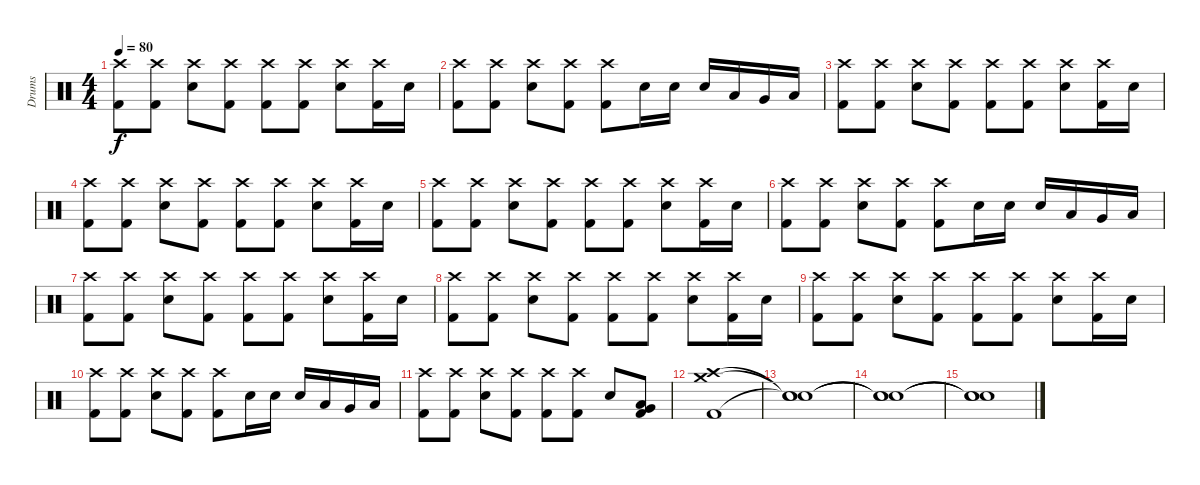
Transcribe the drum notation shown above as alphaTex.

\track ("Drums" "Drums") {instrument percussion}
\staff {score}
\articulation defaults
\ts (4 4)
\tempo 80
\clef neutral
\ks c
("Crash high (hit)" "Kick (hit) 2").8{dy f} ("Crash high (hit)" "Kick (hit) 2").8 ("Crash high (hit)" "Snare (hit) 2").8 ("Crash high (hit)" "Kick (hit) 2").8 ("Crash high (hit)" "Kick (hit) 2").8 ("Crash high (hit)" "Kick (hit) 2").8 ("Crash high (hit)" "Snare (hit) 2").8 ("Crash high (hit)" "Kick (hit) 2").16 "Snare (hit) 2".16 |
("Crash high (hit)" "Kick (hit) 2").8 ("Crash high (hit)" "Kick (hit) 2").8 ("Crash high (hit)" "Snare (hit) 2").8 ("Crash high (hit)" "Kick (hit) 2").8 ("Crash high (hit)" "Kick (hit) 2").8 "Snare (hit) 2".16 "Snare (hit) 2".16 "Snare (hit) 2".16 "Low Tom (hit)".16 "Very Low Tom (hit)".16 "Low Floor Tom (hit)".16 |
("Crash high (hit)" "Kick (hit) 2").8 ("Crash high (hit)" "Kick (hit) 2").8 ("Crash high (hit)" "Snare (hit) 2").8 ("Crash high (hit)" "Kick (hit) 2").8 ("Crash high (hit)" "Kick (hit) 2").8 ("Crash high (hit)" "Kick (hit) 2").8 ("Crash high (hit)" "Snare (hit) 2").8 ("Crash high (hit)" "Kick (hit) 2").16 "Snare (hit) 2".16 |
("Crash high (hit)" "Kick (hit) 2").8 ("Crash high (hit)" "Kick (hit) 2").8 ("Crash high (hit)" "Snare (hit) 2").8 ("Crash high (hit)" "Kick (hit) 2").8 ("Crash high (hit)" "Kick (hit) 2").8 ("Crash high (hit)" "Kick (hit) 2").8 ("Crash high (hit)" "Snare (hit) 2").8 ("Crash high (hit)" "Kick (hit) 2").16 "Snare (hit) 2".16 |
("Crash high (hit)" "Kick (hit) 2").8 ("Crash high (hit)" "Kick (hit) 2").8 ("Crash high (hit)" "Snare (hit) 2").8 ("Crash high (hit)" "Kick (hit) 2").8 ("Crash high (hit)" "Kick (hit) 2").8 ("Crash high (hit)" "Kick (hit) 2").8 ("Crash high (hit)" "Snare (hit) 2").8 ("Crash high (hit)" "Kick (hit) 2").16 "Snare (hit) 2".16 |
("Crash high (hit)" "Kick (hit) 2").8 ("Crash high (hit)" "Kick (hit) 2").8 ("Crash high (hit)" "Snare (hit) 2").8 ("Crash high (hit)" "Kick (hit) 2").8 ("Crash high (hit)" "Kick (hit) 2").8 "Snare (hit) 2".16 "Snare (hit) 2".16 "Snare (hit) 2".16 "Low Tom (hit)".16 "Very Low Tom (hit)".16 "Low Floor Tom (hit)".16 |
("Crash high (hit)" "Kick (hit) 2").8 ("Crash high (hit)" "Kick (hit) 2").8 ("Crash high (hit)" "Snare (hit) 2").8 ("Crash high (hit)" "Kick (hit) 2").8 ("Crash high (hit)" "Kick (hit) 2").8 ("Crash high (hit)" "Kick (hit) 2").8 ("Crash high (hit)" "Snare (hit) 2").8 ("Crash high (hit)" "Kick (hit) 2").16 "Snare (hit) 2".16 |
("Crash high (hit)" "Kick (hit) 2").8 ("Crash high (hit)" "Kick (hit) 2").8 ("Crash high (hit)" "Snare (hit) 2").8 ("Crash high (hit)" "Kick (hit) 2").8 ("Crash high (hit)" "Kick (hit) 2").8 ("Crash high (hit)" "Kick (hit) 2").8 ("Crash high (hit)" "Snare (hit) 2").8 ("Crash high (hit)" "Kick (hit) 2").16 "Snare (hit) 2".16 |
("Crash high (hit)" "Kick (hit) 2").8 ("Crash high (hit)" "Kick (hit) 2").8 ("Crash high (hit)" "Snare (hit) 2").8 ("Crash high (hit)" "Kick (hit) 2").8 ("Crash high (hit)" "Kick (hit) 2").8 ("Crash high (hit)" "Kick (hit) 2").8 ("Crash high (hit)" "Snare (hit) 2").8 ("Crash high (hit)" "Kick (hit) 2").16 "Snare (hit) 2".16 |
("Crash high (hit)" "Kick (hit) 2").8 ("Crash high (hit)" "Kick (hit) 2").8 ("Crash high (hit)" "Snare (hit) 2").8 ("Crash high (hit)" "Kick (hit) 2").8 ("Crash high (hit)" "Kick (hit) 2").8 "Snare (hit) 2".16 "Snare (hit) 2".16 "Snare (hit) 2".16 "Low Tom (hit)".16 "Very Low Tom (hit)".16 "Low Floor Tom (hit)".16 |
("Crash high (hit)" "Kick (hit) 2").8 ("Crash high (hit)" "Kick (hit) 2").8 ("Crash high (hit)" "Snare (hit) 2").8 ("Crash high (hit)" "Kick (hit) 2").8 ("Crash high (hit)" "Kick (hit) 2").8 ("Crash high (hit)" "Kick (hit) 2").8 "Snare (hit) 2".8 ("Low Tom (hit)" "Very Low Tom (hit)" "Kick (hit) 2").8 |
("Crash high (hit)" "Crash medium (hit)" "Kick (hit) 2").1 |
("Snare (hit)"{t} "Snare (hit)"{t} "Snare (hit)"{t}).1 |
("Snare (hit)"{t} "Snare (hit)"{t} "Snare (hit)"{t}).1 |
("Snare (hit)"{t} "Snare (hit)"{t} "Snare (hit)"{t}).1
